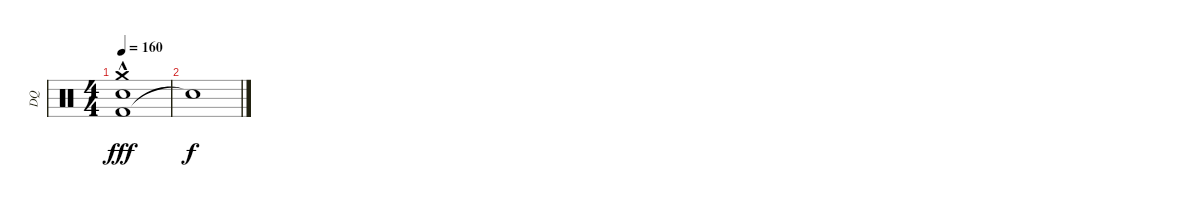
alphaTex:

\track ("DQ" "DQ") {instrument percussion}
\staff {score}
\articulation defaults
\ts (4 4)
\section ("" "")
\tempo 160
\clef neutral
\ks c
("Kick (hit) 2"{hac} "Snare (hit) 2"{hac} "Crash medium (hit)").1{dy fff} |
"Snare (hit)"{t}.1{dy f}
